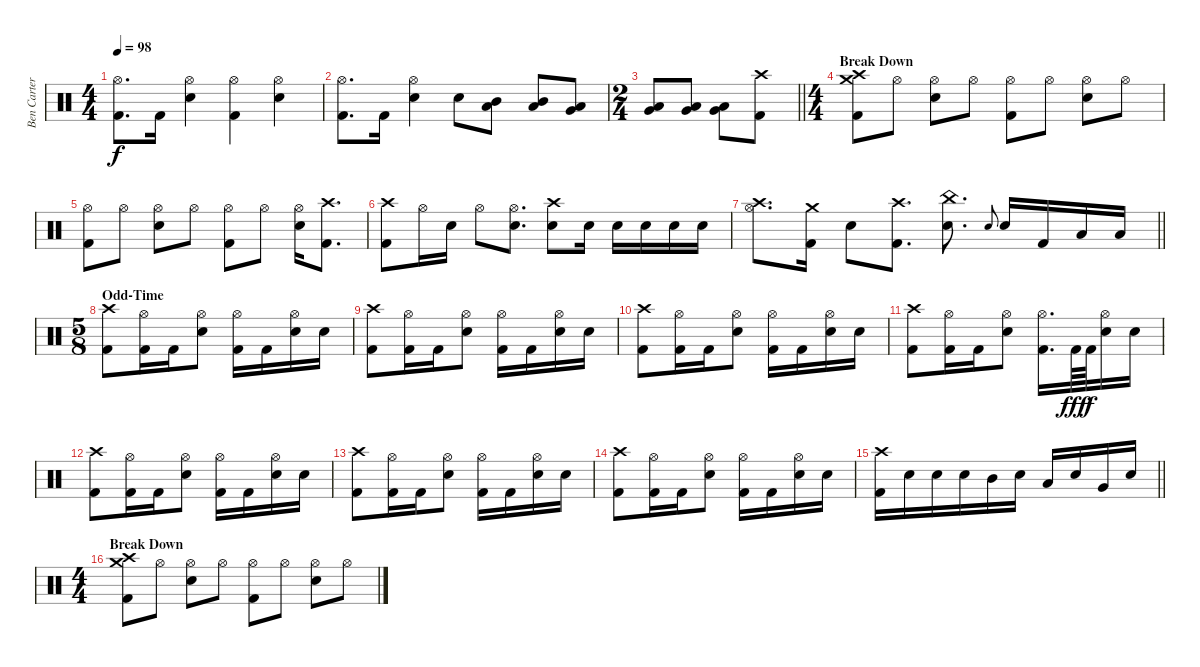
\track ("Ben Carter" "Ben Carter") {instrument percussion}
\staff {score}
\articulation defaults
\ts (4 4)
\tempo 98
\clef neutral
\ks c
("Hi-Hat (open)" "Kick (hit) 2").8{d dy f} "Kick (hit) 2".16 ("Hi-Hat (open)" "Snare (hit) 2").4 ("Hi-Hat (open)" "Kick (hit) 2").4 ("Hi-Hat (open)" "Snare (hit) 2").4 |
("Hi-Hat (open)" "Kick (hit) 2").8{d} "Kick (hit) 2".16 ("Hi-Hat (open)" "Snare (hit) 2").4 "Snare (hit) 2".8 ("Low Tom (hit)" "Mid Tom (hit)").8 ("Mid Tom (hit)" "Low Tom (hit)").8 ("Very Low Tom (hit)" "Low Tom (hit)").8 |
\ts (2 4)
\barLineRight lightlight
("Very Low Tom (hit)" "Low Tom (hit)").8 ("Low Floor Tom (hit)" "Very Low Tom (hit)").8 ("Low Floor Tom (hit)" "Very Low Tom (hit)").8 ("Crash high (hit)" "Kick (hit) 2").8 |
\ts (4 4)
\section ("" "Break Down")
("Crash high (hit)" "Crash medium (hit)" "Kick (hit) 2").8 "Hi-Hat (open)".8 ("Hi-Hat (open)" "Snare (hit) 2").8 "Hi-Hat (open)".8 ("Hi-Hat (open)" "Kick (hit) 2").8 "Hi-Hat (open)".8 ("Hi-Hat (open)" "Snare (hit) 2").8 "Hi-Hat (open)".8 |
("Hi-Hat (open)" "Kick (hit) 2").8 "Hi-Hat (open)".8 ("Hi-Hat (open)" "Snare (hit) 2").8 "Hi-Hat (open)".8 ("Hi-Hat (open)" "Kick (hit) 2").8 "Hi-Hat (open)".8 ("Hi-Hat (open)" "Snare (hit) 2").16 ("Crash high (hit)" "Kick (hit) 2").8{d} |
("Crash high (hit)" "Kick (hit) 2").8 "Hi-Hat (open)".16 "Snare (hit) 2".16 "Hi-Hat (open)".8 ("Hi-Hat (open)" "Snare (hit) 2").8{d} ("Crash high (hit)" "Snare (hit) 2").8 "Snare (hit) 2".16 "Snare (hit) 2".16 "Snare (hit) 2".16 "Snare (hit) 2".16 "Snare (hit) 2".16 |
\barLineRight lightlight
("Crash high (hit)" "Hi-Hat (open)").8{d} ("Crash medium (hit)" "Kick (hit) 2").16 "Snare (hit) 2".8 ("Crash high (hit)" "Kick (hit) 2").8{d} ("China (hit)" "Snare (hit) 2").8{d} "Snare (hit) 2".8{gr onbeat} "Snare (hit) 2".16 "Kick (hit) 2".16 "Low Tom (hit)".16 "Low Tom (hit)".16 |
\ts (5 8)
\section ("" "Odd-Time")
("Crash high (hit)" "Kick (hit) 2").8 ("Hi-Hat (open)" "Kick (hit) 2").16 "Kick (hit) 2".16 ("Hi-Hat (open)" "Snare (hit) 2").8 ("Hi-Hat (open)" "Kick (hit) 2").16 "Kick (hit) 2".16 ("Hi-Hat (open)" "Snare (hit) 2").16 "Snare (hit) 2".16 |
("Crash high (hit)" "Kick (hit) 2").8 ("Hi-Hat (open)" "Kick (hit) 2").16 "Kick (hit) 2".16 ("Hi-Hat (open)" "Snare (hit) 2").8 ("Hi-Hat (open)" "Kick (hit) 2").16 "Kick (hit) 2".16 ("Hi-Hat (open)" "Snare (hit) 2").16 "Snare (hit) 2".16 |
("Crash high (hit)" "Kick (hit) 2").8 ("Hi-Hat (open)" "Kick (hit) 2").16 "Kick (hit) 2".16 ("Hi-Hat (open)" "Snare (hit) 2").8 ("Hi-Hat (open)" "Kick (hit) 2").16 "Kick (hit) 2".16 ("Hi-Hat (open)" "Snare (hit) 2").16 "Snare (hit) 2".16 |
("Crash high (hit)" "Kick (hit) 2").8 ("Hi-Hat (open)" "Kick (hit) 2").16 "Kick (hit) 2".16 ("Hi-Hat (open)" "Snare (hit) 2").8 ("Hi-Hat (open)" "Kick (hit) 2").16{d} "Kick (hit) 2".64{dy fff} "Kick (hit) 2".64{dy f} ("Hi-Hat (open)" "Snare (hit) 2").16 "Snare (hit) 2".16 |
("Crash high (hit)" "Kick (hit) 2").8 ("Hi-Hat (open)" "Kick (hit) 2").16 "Kick (hit) 2".16 ("Hi-Hat (open)" "Snare (hit) 2").8 ("Hi-Hat (open)" "Kick (hit) 2").16 "Kick (hit) 2".16 ("Hi-Hat (open)" "Snare (hit) 2").16 "Snare (hit) 2".16 |
("Crash high (hit)" "Kick (hit) 2").8 ("Hi-Hat (open)" "Kick (hit) 2").16 "Kick (hit) 2".16 ("Hi-Hat (open)" "Snare (hit) 2").8 ("Hi-Hat (open)" "Kick (hit) 2").16 "Kick (hit) 2".16 ("Hi-Hat (open)" "Snare (hit) 2").16 "Snare (hit) 2".16 |
("Crash high (hit)" "Kick (hit) 2").8 ("Hi-Hat (open)" "Kick (hit) 2").16 "Kick (hit) 2".16 ("Hi-Hat (open)" "Snare (hit) 2").8 ("Hi-Hat (open)" "Kick (hit) 2").16 "Kick (hit) 2".16 ("Hi-Hat (open)" "Snare (hit) 2").16 "Snare (hit) 2".16 |
\barLineRight lightlight
("Crash high (hit)" "Kick (hit) 2").16 "Snare (hit) 2".16 "Snare (hit) 2".16 "Snare (hit) 2".16 "Mid Tom (hit)".16 "Snare (hit) 2".16 "Low Tom (hit)".16 "Snare (hit) 2".16 "Very Low Tom (hit)".16 "Snare (hit) 2".16 |
\ts (4 4)
\section ("" "Break Down")
("Crash high (hit)" "Crash medium (hit)" "Kick (hit) 2").8 "Hi-Hat (open)".8 ("Hi-Hat (open)" "Snare (hit) 2").8 "Hi-Hat (open)".8 ("Hi-Hat (open)" "Kick (hit) 2").8 "Hi-Hat (open)".8 ("Hi-Hat (open)" "Snare (hit) 2").8 "Hi-Hat (open)".8
